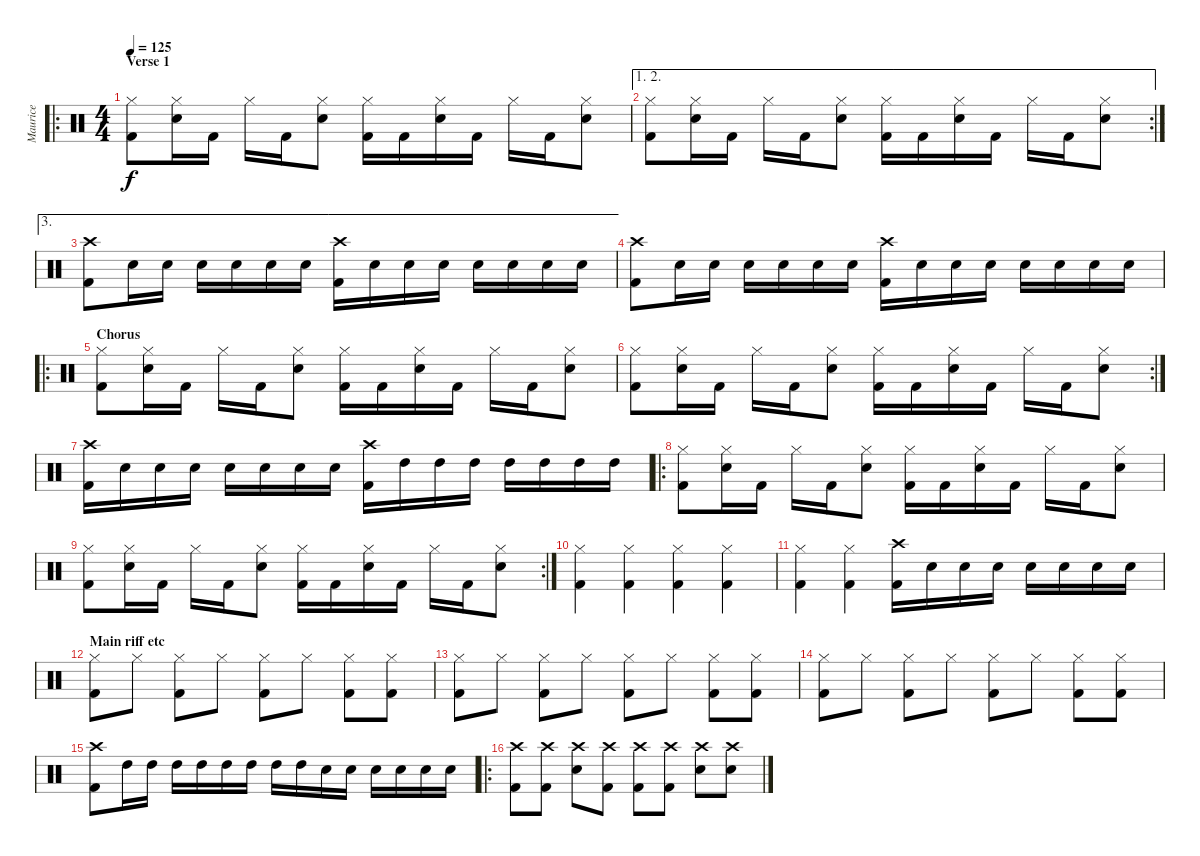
\track ("Maurice" "Maurice") {instrument percussion}
\staff {score}
\articulation defaults
\ro
\ts (4 4)
\section ("" "Verse 1")
\tempo 125
\clef neutral
\ks c
("Hi-Hat (closed)" "Kick (hit) 2").8{dy f} ("Hi-Hat (closed)" "Snare (hit) 2").16 "Kick (hit) 2".16 "Hi-Hat (closed)".16 "Kick (hit) 2".16 ("Hi-Hat (closed)" "Snare (hit) 2").8 ("Hi-Hat (closed)" "Kick (hit) 2").16 "Kick (hit) 2".16 ("Hi-Hat (closed)" "Snare (hit) 2").16 "Kick (hit) 2".16 "Hi-Hat (closed)".16 "Kick (hit) 2".16 ("Hi-Hat (closed)" "Snare (hit) 2").8 |
\ae (1 2)
\rc 2
("Hi-Hat (closed)" "Kick (hit) 2").8 ("Hi-Hat (closed)" "Snare (hit) 2").16 "Kick (hit) 2".16 "Hi-Hat (closed)".16 "Kick (hit) 2".16 ("Hi-Hat (closed)" "Snare (hit) 2").8 ("Hi-Hat (closed)" "Kick (hit) 2").16 "Kick (hit) 2".16 ("Hi-Hat (closed)" "Snare (hit) 2").16 "Kick (hit) 2".16 "Hi-Hat (closed)".16 "Kick (hit) 2".16 ("Hi-Hat (closed)" "Snare (hit) 2").8 |
\ae 3
("Crash high (hit)" "Kick (hit) 2").8 "Snare (hit) 2".16 "Snare (hit) 2".16 "Snare (hit) 2".16 "Snare (hit) 2".16 "Snare (hit) 2".16 "Snare (hit) 2".16 ("Crash high (hit)" "Kick (hit) 2").16 "Snare (hit) 2".16 "Snare (hit) 2".16 "Snare (hit) 2".16 "Snare (hit) 2".16 "Snare (hit) 2".16 "Snare (hit) 2".16 "Snare (hit) 2".16 |
("Crash high (hit)" "Kick (hit) 2").8 "Snare (hit) 2".16 "Snare (hit) 2".16 "Snare (hit) 2".16 "Snare (hit) 2".16 "Snare (hit) 2".16 "Snare (hit) 2".16 ("Crash high (hit)" "Kick (hit) 2").16 "Snare (hit) 2".16 "Snare (hit) 2".16 "Snare (hit) 2".16 "Snare (hit) 2".16 "Snare (hit) 2".16 "Snare (hit) 2".16 "Snare (hit) 2".16 |
\ro
\section ("" "Chorus")
("Hi-Hat (closed)" "Kick (hit) 2").8 ("Hi-Hat (closed)" "Snare (hit) 2").16 "Kick (hit) 2".16 "Hi-Hat (closed)".16 "Kick (hit) 2".16 ("Hi-Hat (closed)" "Snare (hit) 2").8 ("Hi-Hat (closed)" "Kick (hit) 2").16 "Kick (hit) 2".16 ("Hi-Hat (closed)" "Snare (hit) 2").16 "Kick (hit) 2".16 "Hi-Hat (closed)".16 "Kick (hit) 2".16 ("Hi-Hat (closed)" "Snare (hit) 2").8 |
\rc 2
("Hi-Hat (closed)" "Kick (hit) 2").8 ("Hi-Hat (closed)" "Snare (hit) 2").16 "Kick (hit) 2".16 "Hi-Hat (closed)".16 "Kick (hit) 2".16 ("Hi-Hat (closed)" "Snare (hit) 2").8 ("Hi-Hat (closed)" "Kick (hit) 2").16 "Kick (hit) 2".16 ("Hi-Hat (closed)" "Snare (hit) 2").16 "Kick (hit) 2".16 "Hi-Hat (closed)".16 "Kick (hit) 2".16 ("Hi-Hat (closed)" "Snare (hit) 2").8 |
("Crash high (hit)" "Kick (hit) 2").16 "Snare (hit) 2".16 "Snare (hit) 2".16 "Snare (hit) 2".16 "Snare (hit) 2".16 "Snare (hit) 2".16 "Snare (hit) 2".16 "Snare (hit) 2".16 ("Crash high (hit)" "Kick (hit) 2").16 "High Tom (hit)".16 "High Tom (hit)".16 "High Tom (hit)".16 "High Tom (hit)".16 "High Tom (hit)".16 "High Tom (hit)".16 "High Tom (hit)".16 |
\ro
("Hi-Hat (closed)" "Kick (hit) 2").8 ("Hi-Hat (closed)" "Snare (hit) 2").16 "Kick (hit) 2".16 "Hi-Hat (closed)".16 "Kick (hit) 2".16 ("Hi-Hat (closed)" "Snare (hit) 2").8 ("Hi-Hat (closed)" "Kick (hit) 2").16 "Kick (hit) 2".16 ("Hi-Hat (closed)" "Snare (hit) 2").16 "Kick (hit) 2".16 "Hi-Hat (closed)".16 "Kick (hit) 2".16 ("Hi-Hat (closed)" "Snare (hit) 2").8 |
\rc 2
("Hi-Hat (closed)" "Kick (hit) 2").8 ("Hi-Hat (closed)" "Snare (hit) 2").16 "Kick (hit) 2".16 "Hi-Hat (closed)".16 "Kick (hit) 2".16 ("Hi-Hat (closed)" "Snare (hit) 2").8 ("Hi-Hat (closed)" "Kick (hit) 2").16 "Kick (hit) 2".16 ("Hi-Hat (closed)" "Snare (hit) 2").16 "Kick (hit) 2".16 "Hi-Hat (closed)".16 "Kick (hit) 2".16 ("Hi-Hat (closed)" "Snare (hit) 2").8 |
("Hi-Hat (closed)" "Kick (hit) 2").4 ("Hi-Hat (closed)" "Kick (hit) 2").4 ("Hi-Hat (closed)" "Kick (hit) 2").4 ("Hi-Hat (closed)" "Kick (hit) 2").4 |
("Hi-Hat (closed)" "Kick (hit) 2").4 ("Hi-Hat (closed)" "Kick (hit) 2").4 ("Crash high (hit)" "Kick (hit) 2").16 "Snare (hit) 2".16 "Snare (hit) 2".16 "Snare (hit) 2".16 "Snare (hit) 2".16 "Snare (hit) 2".16 "Snare (hit) 2".16 "Snare (hit) 2".16 |
\section ("" "Main riff etc")
("Hi-Hat (closed)" "Kick (hit) 2").8 "Hi-Hat (closed)".8 ("Hi-Hat (closed)" "Kick (hit) 2").8 "Hi-Hat (closed)".8 ("Hi-Hat (closed)" "Kick (hit) 2").8 "Hi-Hat (closed)".8 ("Hi-Hat (closed)" "Kick (hit) 2").8 ("Hi-Hat (closed)" "Kick (hit) 2").8 |
("Hi-Hat (closed)" "Kick (hit) 2").8 "Hi-Hat (closed)".8 ("Hi-Hat (closed)" "Kick (hit) 2").8 "Hi-Hat (closed)".8 ("Hi-Hat (closed)" "Kick (hit) 2").8 "Hi-Hat (closed)".8 ("Hi-Hat (closed)" "Kick (hit) 2").8 ("Hi-Hat (closed)" "Kick (hit) 2").8 |
("Hi-Hat (closed)" "Kick (hit) 2").8 "Hi-Hat (closed)".8 ("Hi-Hat (closed)" "Kick (hit) 2").8 "Hi-Hat (closed)".8 ("Hi-Hat (closed)" "Kick (hit) 2").8 "Hi-Hat (closed)".8 ("Hi-Hat (closed)" "Kick (hit) 2").8 ("Hi-Hat (closed)" "Kick (hit) 2").8 |
("Crash high (hit)" "Kick (hit) 2").8 "High Tom (hit)".16 "High Tom (hit)".16 "High Tom (hit)".16 "High Tom (hit)".16 "High Tom (hit)".16 "High Tom (hit)".16 "High Tom (hit)".16 "High Tom (hit)".16 "Snare (hit) 2".16 "Snare (hit) 2".16 "Snare (hit) 2".16 "Snare (hit) 2".16 "Snare (hit) 2".16 "Snare (hit) 2".16 |
\ro
("Crash high (hit)" "Kick (hit) 2").8 ("Crash high (hit)" "Kick (hit) 2").8 ("Crash high (hit)" "Snare (hit) 2").8 ("Crash high (hit)" "Kick (hit) 2").8 ("Crash high (hit)" "Kick (hit) 2").8 ("Crash high (hit)" "Kick (hit) 2").8 ("Crash high (hit)" "Snare (hit) 2").8 ("Crash high (hit)" "Snare (hit) 2").8
